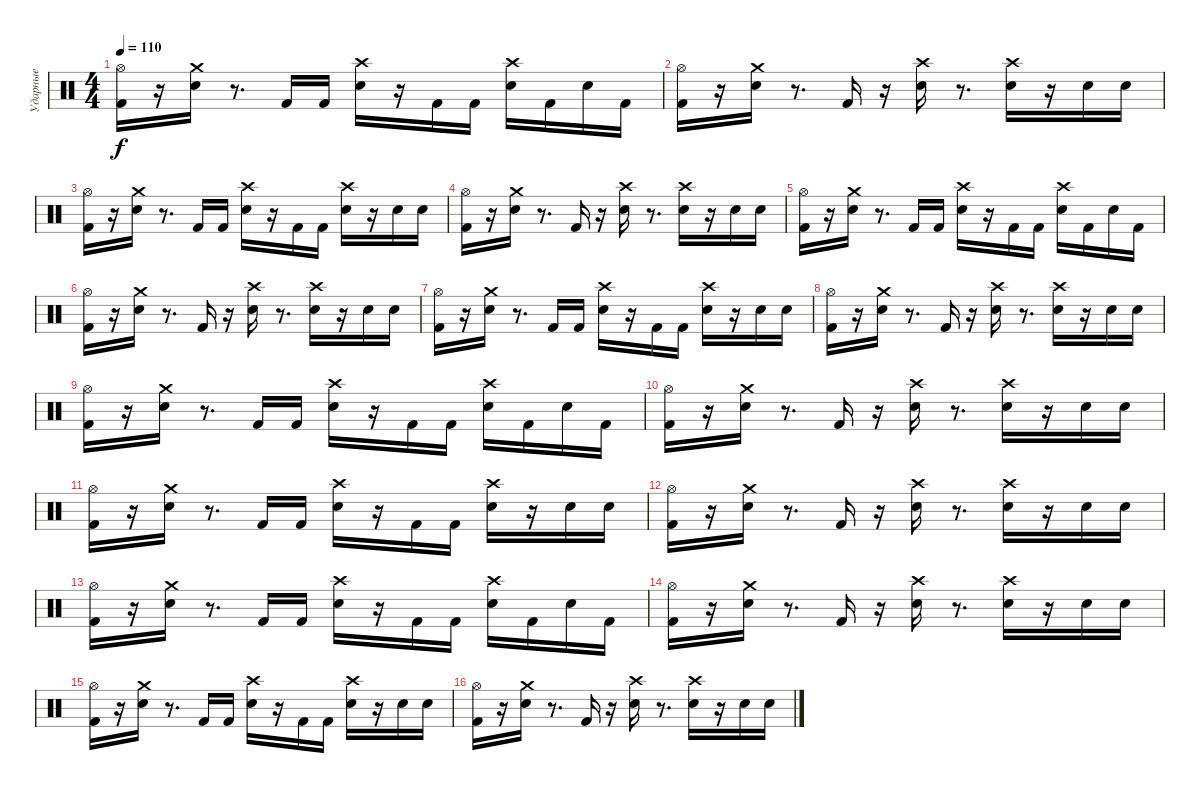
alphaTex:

\track ("Ударные" "Ударные") {instrument percussion}
\staff {score}
\articulation defaults
\ts (4 4)
\tempo 110
\clef neutral
\ks c
("Hi-Hat (open)" "Kick (hit) 2").16{dy f} r.16 ("Crash medium (hit)" "Electric Snare (hit)").16 r.8{d} "Kick (hit) 2".16 "Kick (hit) 2".16 ("Crash high (hit)" "Electric Snare (hit)").16 r.16 "Kick (hit) 2".16 "Kick (hit) 2".16 ("Crash high (hit)" "Electric Snare (hit)").16 "Kick (hit) 2".16 "Electric Snare (hit)".16 "Kick (hit) 2".16 |
("Hi-Hat (open)" "Kick (hit) 2").16 r.16 ("Crash medium (hit)" "Electric Snare (hit)").16 r.8{d} "Kick (hit) 2".16 r.16 ("Crash high (hit)" "Electric Snare (hit)").16 r.8{d} ("Crash high (hit)" "Electric Snare (hit)").16 r.16 "Electric Snare (hit)".16 "Electric Snare (hit)".16 |
("Hi-Hat (open)" "Kick (hit) 2").16 r.16 ("Crash medium (hit)" "Electric Snare (hit)").16 r.8{d} "Kick (hit) 2".16 "Kick (hit) 2".16 ("Crash high (hit)" "Electric Snare (hit)").16 r.16 "Kick (hit) 2".16 "Kick (hit) 2".16 ("Crash high (hit)" "Electric Snare (hit)").16 r.16 "Electric Snare (hit)".16 "Electric Snare (hit)".16 |
("Hi-Hat (open)" "Kick (hit) 2").16 r.16 ("Crash medium (hit)" "Electric Snare (hit)").16 r.8{d} "Kick (hit) 2".16 r.16 ("Crash high (hit)" "Electric Snare (hit)").16 r.8{d} ("Crash high (hit)" "Electric Snare (hit)").16 r.16 "Electric Snare (hit)".16 "Electric Snare (hit)".16 |
("Hi-Hat (open)" "Kick (hit) 2").16 r.16 ("Crash medium (hit)" "Electric Snare (hit)").16 r.8{d} "Kick (hit) 2".16 "Kick (hit) 2".16 ("Crash high (hit)" "Electric Snare (hit)").16 r.16 "Kick (hit) 2".16 "Kick (hit) 2".16 ("Crash high (hit)" "Electric Snare (hit)").16 "Kick (hit) 2".16 "Electric Snare (hit)".16 "Kick (hit) 2".16 |
("Hi-Hat (open)" "Kick (hit) 2").16 r.16 ("Crash medium (hit)" "Electric Snare (hit)").16 r.8{d} "Kick (hit) 2".16 r.16 ("Crash high (hit)" "Electric Snare (hit)").16 r.8{d} ("Crash high (hit)" "Electric Snare (hit)").16 r.16 "Electric Snare (hit)".16 "Electric Snare (hit)".16 |
("Hi-Hat (open)" "Kick (hit) 2").16 r.16 ("Crash medium (hit)" "Electric Snare (hit)").16 r.8{d} "Kick (hit) 2".16 "Kick (hit) 2".16 ("Crash high (hit)" "Electric Snare (hit)").16 r.16 "Kick (hit) 2".16 "Kick (hit) 2".16 ("Crash high (hit)" "Electric Snare (hit)").16 r.16 "Electric Snare (hit)".16 "Electric Snare (hit)".16 |
("Hi-Hat (open)" "Kick (hit) 2").16 r.16 ("Crash medium (hit)" "Electric Snare (hit)").16 r.8{d} "Kick (hit) 2".16 r.16 ("Crash high (hit)" "Electric Snare (hit)").16 r.8{d} ("Crash high (hit)" "Electric Snare (hit)").16 r.16 "Electric Snare (hit)".16 "Electric Snare (hit)".16 |
("Hi-Hat (open)" "Kick (hit) 2").16 r.16 ("Crash medium (hit)" "Electric Snare (hit)").16 r.8{d} "Kick (hit) 2".16 "Kick (hit) 2".16 ("Crash high (hit)" "Electric Snare (hit)").16 r.16 "Kick (hit) 2".16 "Kick (hit) 2".16 ("Crash high (hit)" "Electric Snare (hit)").16 "Kick (hit) 2".16 "Electric Snare (hit)".16 "Kick (hit) 2".16 |
("Hi-Hat (open)" "Kick (hit) 2").16 r.16 ("Crash medium (hit)" "Electric Snare (hit)").16 r.8{d} "Kick (hit) 2".16 r.16 ("Crash high (hit)" "Electric Snare (hit)").16 r.8{d} ("Crash high (hit)" "Electric Snare (hit)").16 r.16 "Electric Snare (hit)".16 "Electric Snare (hit)".16 |
("Hi-Hat (open)" "Kick (hit) 2").16 r.16 ("Crash medium (hit)" "Electric Snare (hit)").16 r.8{d} "Kick (hit) 2".16 "Kick (hit) 2".16 ("Crash high (hit)" "Electric Snare (hit)").16 r.16 "Kick (hit) 2".16 "Kick (hit) 2".16 ("Crash high (hit)" "Electric Snare (hit)").16 r.16 "Electric Snare (hit)".16 "Electric Snare (hit)".16 |
("Hi-Hat (open)" "Kick (hit) 2").16 r.16 ("Crash medium (hit)" "Electric Snare (hit)").16 r.8{d} "Kick (hit) 2".16 r.16 ("Crash high (hit)" "Electric Snare (hit)").16 r.8{d} ("Crash high (hit)" "Electric Snare (hit)").16 r.16 "Electric Snare (hit)".16 "Electric Snare (hit)".16 |
("Hi-Hat (open)" "Kick (hit) 2").16 r.16 ("Crash medium (hit)" "Electric Snare (hit)").16 r.8{d} "Kick (hit) 2".16 "Kick (hit) 2".16 ("Crash high (hit)" "Electric Snare (hit)").16 r.16 "Kick (hit) 2".16 "Kick (hit) 2".16 ("Crash high (hit)" "Electric Snare (hit)").16 "Kick (hit) 2".16 "Electric Snare (hit)".16 "Kick (hit) 2".16 |
("Hi-Hat (open)" "Kick (hit) 2").16{volume 13} r.16 ("Crash medium (hit)" "Electric Snare (hit)").16{volume 13} r.8{d} "Kick (hit) 2".16{volume 13} r.16 ("Crash high (hit)" "Electric Snare (hit)").16{volume 13} r.8{d} ("Crash high (hit)" "Electric Snare (hit)").16{volume 12} r.16 "Electric Snare (hit)".16{volume 12} "Electric Snare (hit)".16{volume 12} |
("Hi-Hat (open)" "Kick (hit) 2").16{volume 12} r.16 ("Crash medium (hit)" "Electric Snare (hit)").16{volume 12} r.8{d} "Kick (hit) 2".16{volume 12} "Kick (hit) 2".16{volume 12} ("Crash high (hit)" "Electric Snare (hit)").16{volume 12} r.16 "Kick (hit) 2".16{volume 12} "Kick (hit) 2".16{volume 12} ("Crash high (hit)" "Electric Snare (hit)").16{volume 12} r.16 "Electric Snare (hit)".16{volume 12} "Electric Snare (hit)".16{volume 12} |
("Hi-Hat (open)" "Kick (hit) 2").16{volume 12} r.16 ("Crash medium (hit)" "Electric Snare (hit)").16{volume 11} r.8{d} "Kick (hit) 2".16{volume 11} r.16 ("Crash high (hit)" "Electric Snare (hit)").16{volume 11} r.8{d} ("Crash high (hit)" "Electric Snare (hit)").16{volume 11} r.16 "Electric Snare (hit)".16{volume 11} "Electric Snare (hit)".16{volume 11}
